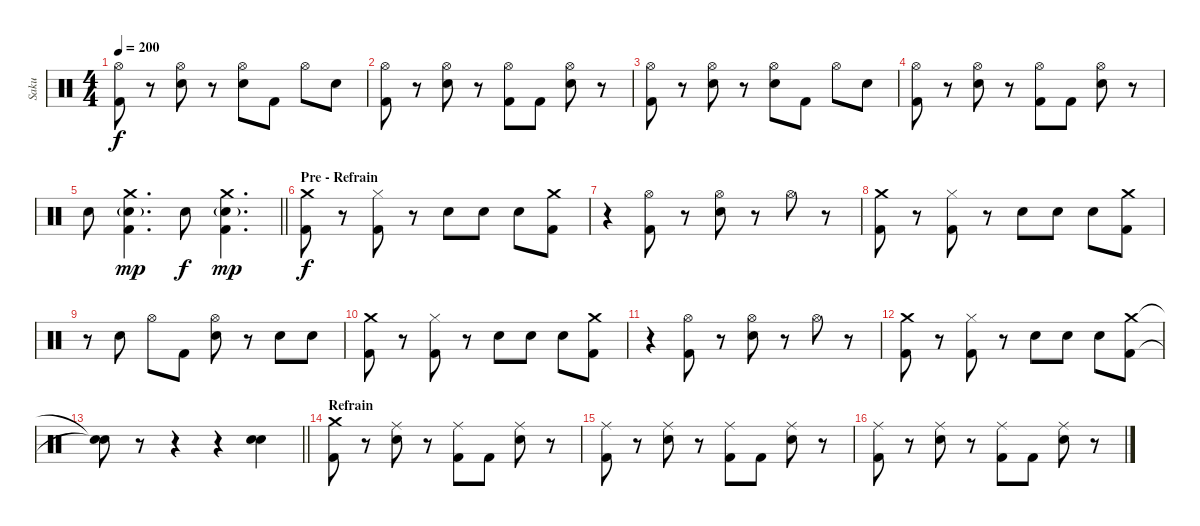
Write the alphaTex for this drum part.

\track ("Saku" "Saku") {instrument percussion}
\staff {score}
\articulation defaults
\ts (4 4)
\tempo 200
\clef neutral
\ks c
("Hi-Hat (open)" "Kick (hit) 2").8{dy f} r.8 ("Hi-Hat (open)" "Electric Snare (hit)").8 r.8 ("Hi-Hat (open)" "Electric Snare (hit)").8 "Kick (hit) 2".8 "Hi-Hat (open)".8 "Electric Snare (hit)".8 |
("Hi-Hat (open)" "Kick (hit) 2").8 r.8 ("Hi-Hat (open)" "Electric Snare (hit)").8 r.8 ("Hi-Hat (open)" "Kick (hit) 2").8 "Kick (hit) 2".8 ("Hi-Hat (open)" "Electric Snare (hit)").8 r.8 |
("Hi-Hat (open)" "Kick (hit) 2").8 r.8 ("Hi-Hat (open)" "Electric Snare (hit)").8 r.8 ("Hi-Hat (open)" "Electric Snare (hit)").8 "Kick (hit) 2".8 "Hi-Hat (open)".8 "Electric Snare (hit)".8 |
("Hi-Hat (open)" "Kick (hit) 2").8 r.8 ("Hi-Hat (open)" "Electric Snare (hit)").8 r.8 ("Hi-Hat (open)" "Kick (hit) 2").8 "Kick (hit) 2".8 ("Hi-Hat (open)" "Electric Snare (hit)").8 r.8 |
\barLineRight lightlight "Electric Snare (hit)".8
("Crash medium (hit)" "Electric Snare (hit)"{g} "Kick (hit) 2").4{d dy mp} "Electric Snare (hit)".8{dy f} ("Crash medium (hit)" "Electric Snare (hit)"{g} "Kick (hit) 2").4{d dy mp} |
\section ("" "Pre - Refrain")
("Crash medium (hit)" "Kick (hit) 2").8{dy f} r.8 ("Hi-Hat (closed)" "Kick (hit) 2").8 r.8 "Electric Snare (hit)".8 "Electric Snare (hit)".8 "Electric Snare (hit)".8 ("Crash medium (hit)" "Kick (hit) 2").8 |
r.4 ("Hi-Hat (open)" "Kick (hit) 2").8 r.8 ("Hi-Hat (open)" "Electric Snare (hit)").8 r.8 "Hi-Hat (open)".8 r.8 |
("Crash medium (hit)" "Kick (hit) 2").8 r.8 ("Hi-Hat (closed)" "Kick (hit) 2").8 r.8 "Electric Snare (hit)".8 "Electric Snare (hit)".8 "Electric Snare (hit)".8 ("Crash medium (hit)" "Kick (hit) 2").8 |
r.8 "Electric Snare (hit)".8 "Hi-Hat (open)".8 "Kick (hit) 2".8 ("Hi-Hat (open)" "Electric Snare (hit)").8 r.8 "Electric Snare (hit)".8 "Electric Snare (hit)".8 |
("Crash medium (hit)" "Kick (hit) 2").8 r.8 ("Hi-Hat (closed)" "Kick (hit) 2").8 r.8 "Electric Snare (hit)".8 "Electric Snare (hit)".8 "Electric Snare (hit)".8 ("Crash medium (hit)" "Kick (hit) 2").8 |
r.4 ("Hi-Hat (open)" "Kick (hit) 2").8 r.8 ("Hi-Hat (open)" "Electric Snare (hit)").8 r.8 "Hi-Hat (open)".8 r.8 |
("Crash medium (hit)" "Kick (hit) 2").8 r.8 ("Hi-Hat (closed)" "Kick (hit) 2").8 r.8 "Electric Snare (hit)".8 "Electric Snare (hit)".8 "Electric Snare (hit)".8 ("Crash medium (hit)" "Kick (hit) 2").8 |
\barLineRight lightlight
("Snare (hit)"{t} "Snare (hit)"{t}).8 r.8 r.4 r.4 ("Electric Snare (hit)" "Electric Snare (hit)").4{bu 120} |
\section ("" "Refrain")
("Crash medium (hit)" "Kick (hit) 2").8 r.8 ("Ride (middle)" "Electric Snare (hit)").8 r.8 ("Ride (middle)" "Kick (hit) 2").8 "Kick (hit) 2".8 ("Ride (middle)" "Electric Snare (hit)").8 r.8 |
("Ride (middle)" "Kick (hit) 2").8 r.8 ("Ride (middle)" "Electric Snare (hit)").8 r.8 ("Ride (middle)" "Kick (hit) 2").8 "Kick (hit) 2".8 ("Ride (middle)" "Electric Snare (hit)").8 r.8 |
("Ride (middle)" "Kick (hit) 2").8 r.8 ("Ride (middle)" "Electric Snare (hit)").8 r.8 ("Ride (middle)" "Kick (hit) 2").8 "Kick (hit) 2".8 ("Ride (middle)" "Electric Snare (hit)").8 r.8
